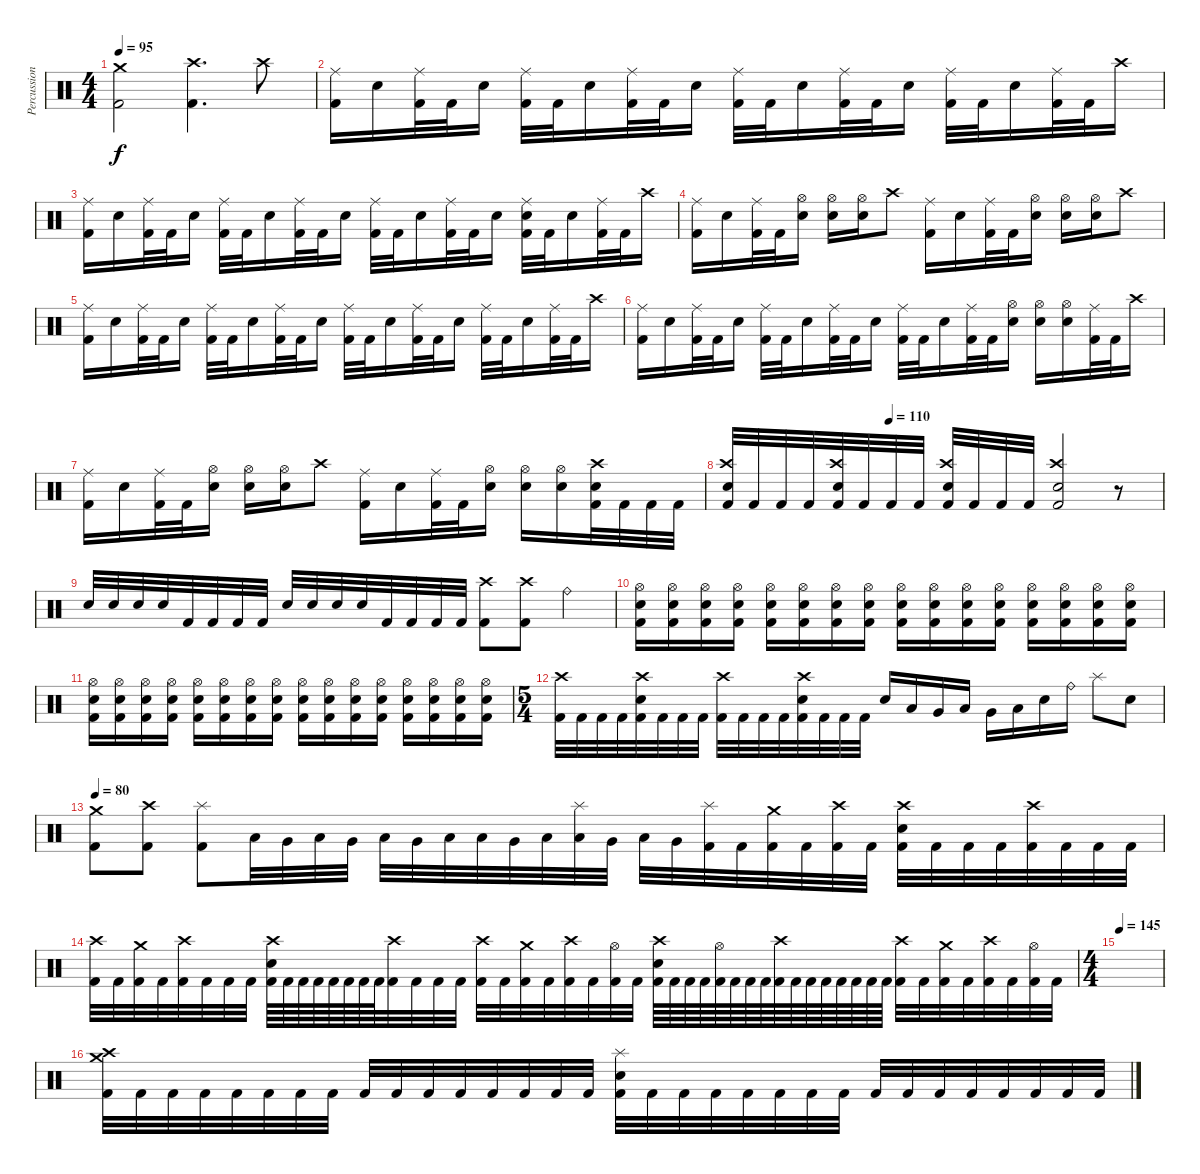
\track ("Percussion" "Percussion") {instrument percussion}
\staff {score}
\articulation defaults
\ts (4 4)
\tempo 95
\clef neutral
\ks c
("Crash medium (hit)" "Kick (hit) 2").2{dy f} ("Crash high (hit)" "Kick (hit) 2").4{d} "Crash high (hit)".8 |
("Ride (middle)" "Kick (hit) 2").16 "Electric Snare (hit)".16 ("Ride (middle)" "Kick (hit) 2").32 "Kick (hit) 2".32 "Electric Snare (hit)".16 ("Ride (middle)" "Kick (hit) 2").32 "Kick (hit) 2".32 "Electric Snare (hit)".16 ("Ride (middle)" "Kick (hit) 2").32 "Kick (hit) 2".32 "Electric Snare (hit)".16 ("Ride (middle)" "Kick (hit) 2").32 "Kick (hit) 2".32 "Electric Snare (hit)".16 ("Ride (middle)" "Kick (hit) 2").32 "Kick (hit) 2".32 "Electric Snare (hit)".16 ("Ride (middle)" "Kick (hit) 2").32 "Kick (hit) 2".32 "Electric Snare (hit)".16 ("Ride (middle)" "Kick (hit) 2").32 "Kick (hit) 2".32 "Crash high (hit)".16 |
("Ride (middle)" "Kick (hit) 2").16 "Electric Snare (hit)".16 ("Ride (middle)" "Kick (hit) 2").32 "Kick (hit) 2".32 "Electric Snare (hit)".16 ("Ride (middle)" "Kick (hit) 2").32 "Kick (hit) 2".32 "Electric Snare (hit)".16 ("Ride (middle)" "Kick (hit) 2").32 "Kick (hit) 2".32 "Electric Snare (hit)".16 ("Ride (middle)" "Kick (hit) 2").32 "Kick (hit) 2".32 "Electric Snare (hit)".16 ("Ride (middle)" "Kick (hit) 2").32 "Kick (hit) 2".32 "Electric Snare (hit)".16 ("Ride (middle)" "Electric Snare (hit)" "Kick (hit) 2").32 "Kick (hit) 2".32 "Electric Snare (hit)".16 ("Ride (middle)" "Kick (hit) 2").32 "Kick (hit) 2".32 "Crash high (hit)".16 |
("Ride (middle)" "Kick (hit) 2").16 "Electric Snare (hit)".16 ("Ride (middle)" "Kick (hit) 2").32 "Kick (hit) 2".32 ("Hi-Hat (open)" "Electric Snare (hit)").16 ("Hi-Hat (open)" "Electric Snare (hit)").16 ("Hi-Hat (open)" "Electric Snare (hit)").16 "Crash high (hit)".8 ("Ride (middle)" "Kick (hit) 2").16 "Electric Snare (hit)".16 ("Ride (middle)" "Kick (hit) 2").32 "Kick (hit) 2".32 ("Hi-Hat (open)" "Electric Snare (hit)").16 ("Hi-Hat (open)" "Electric Snare (hit)").16 ("Hi-Hat (open)" "Electric Snare (hit)").16 "Crash high (hit)".8 |
("Ride (middle)" "Kick (hit) 2").16 "Electric Snare (hit)".16 ("Ride (middle)" "Kick (hit) 2").32 "Kick (hit) 2".32 "Electric Snare (hit)".16 ("Ride (middle)" "Kick (hit) 2").32 "Kick (hit) 2".32 "Electric Snare (hit)".16 ("Ride (middle)" "Kick (hit) 2").32 "Kick (hit) 2".32 "Electric Snare (hit)".16 ("Ride (middle)" "Kick (hit) 2").32 "Kick (hit) 2".32 "Electric Snare (hit)".16 ("Ride (middle)" "Kick (hit) 2").32 "Kick (hit) 2".32 "Electric Snare (hit)".16 ("Ride (middle)" "Kick (hit) 2").32 "Kick (hit) 2".32 "Electric Snare (hit)".16 ("Ride (middle)" "Kick (hit) 2").32 "Kick (hit) 2".32 "Crash high (hit)".16 |
("Ride (middle)" "Kick (hit) 2").16 "Electric Snare (hit)".16 ("Ride (middle)" "Kick (hit) 2").32 "Kick (hit) 2".32 "Electric Snare (hit)".16 ("Ride (middle)" "Kick (hit) 2").32 "Kick (hit) 2".32 "Electric Snare (hit)".16 ("Ride (middle)" "Kick (hit) 2").32 "Kick (hit) 2".32 "Electric Snare (hit)".16 ("Ride (middle)" "Kick (hit) 2").32 "Kick (hit) 2".32 "Electric Snare (hit)".16 ("Ride (middle)" "Kick (hit) 2").32 "Kick (hit) 2".32 ("Hi-Hat (open)" "Electric Snare (hit)").16 ("Hi-Hat (open)" "Electric Snare (hit)").16 ("Hi-Hat (open)" "Electric Snare (hit)").16 ("Ride (middle)" "Kick (hit) 2").32 "Kick (hit) 2".32 "Crash high (hit)".16 |
("Ride (middle)" "Kick (hit) 2").16 "Electric Snare (hit)".16 ("Ride (middle)" "Kick (hit) 2").32 "Kick (hit) 2".32 ("Hi-Hat (open)" "Electric Snare (hit)").16 ("Hi-Hat (open)" "Electric Snare (hit)").16 ("Hi-Hat (open)" "Electric Snare (hit)").16 "Crash high (hit)".8 ("Ride (middle)" "Kick (hit) 2").16 "Electric Snare (hit)".16 ("Ride (middle)" "Kick (hit) 2").32 "Kick (hit) 2".32 ("Hi-Hat (open)" "Electric Snare (hit)").16 ("Hi-Hat (open)" "Electric Snare (hit)").16 ("Hi-Hat (open)" "Electric Snare (hit)").16 ("Crash high (hit)" "Electric Snare (hit)" "Kick (hit) 2").32 "Kick (hit) 2".32 "Kick (hit) 2".32 "Kick (hit) 2".32 |
\tempo (110 0.375)
("Crash high (hit)" "Electric Snare (hit)" "Kick (hit) 2").32 "Kick (hit) 2".32 "Kick (hit) 2".32 "Kick (hit) 2".32 ("Crash high (hit)" "Electric Snare (hit)" "Kick (hit) 2").32 "Kick (hit) 2".32 "Kick (hit) 2".32 "Kick (hit) 2".32 ("Crash high (hit)" "Electric Snare (hit)" "Kick (hit) 2").32 "Kick (hit) 2".32 "Kick (hit) 2".32 "Kick (hit) 2".32 ("Crash high (hit)" "Electric Snare (hit)" "Kick (hit) 2").2 r.8 |
"Electric Snare (hit)".32 "Electric Snare (hit)".32 "Electric Snare (hit)".32 "Electric Snare (hit)".32 "Kick (hit) 2".32 "Kick (hit) 2".32 "Kick (hit) 2".32 "Kick (hit) 2".32 "Electric Snare (hit)".32 "Electric Snare (hit)".32 "Electric Snare (hit)".32 "Electric Snare (hit)".32 "Kick (hit) 2".32 "Kick (hit) 2".32 "Kick (hit) 2".32 "Kick (hit) 2".32 ("Crash high (hit)" "Kick (hit) 2").8 ("Crash high (hit)" "Kick (hit) 2").8 "Ride (bell)".4 |
("Hi-Hat (open)" "Electric Snare (hit)" "Kick (hit) 2").16 ("Hi-Hat (open)" "Electric Snare (hit)" "Kick (hit) 2").16 ("Hi-Hat (open)" "Electric Snare (hit)" "Kick (hit) 2").16 ("Hi-Hat (open)" "Electric Snare (hit)" "Kick (hit) 2").16 ("Hi-Hat (open)" "Electric Snare (hit)" "Kick (hit) 2").16 ("Hi-Hat (open)" "Electric Snare (hit)" "Kick (hit) 2").16 ("Hi-Hat (open)" "Electric Snare (hit)" "Kick (hit) 2").16 ("Hi-Hat (open)" "Electric Snare (hit)" "Kick (hit) 2").16 ("Hi-Hat (open)" "Electric Snare (hit)" "Kick (hit) 2").16 ("Hi-Hat (open)" "Electric Snare (hit)" "Kick (hit) 2").16 ("Hi-Hat (open)" "Electric Snare (hit)" "Kick (hit) 2").16 ("Hi-Hat (open)" "Electric Snare (hit)" "Kick (hit) 2").16 ("Hi-Hat (open)" "Electric Snare (hit)" "Kick (hit) 2").16 ("Hi-Hat (open)" "Electric Snare (hit)" "Kick (hit) 2").16 ("Hi-Hat (open)" "Electric Snare (hit)" "Kick (hit) 2").16 ("Hi-Hat (open)" "Electric Snare (hit)" "Kick (hit) 2").16 |
("Hi-Hat (open)" "Electric Snare (hit)" "Kick (hit) 2").16 ("Hi-Hat (open)" "Electric Snare (hit)" "Kick (hit) 2").16 ("Hi-Hat (open)" "Electric Snare (hit)" "Kick (hit) 2").16 ("Hi-Hat (open)" "Electric Snare (hit)" "Kick (hit) 2").16 ("Hi-Hat (open)" "Electric Snare (hit)" "Kick (hit) 2").16 ("Hi-Hat (open)" "Electric Snare (hit)" "Kick (hit) 2").16 ("Hi-Hat (open)" "Electric Snare (hit)" "Kick (hit) 2").16 ("Hi-Hat (open)" "Electric Snare (hit)" "Kick (hit) 2").16 ("Hi-Hat (open)" "Electric Snare (hit)" "Kick (hit) 2").16 ("Hi-Hat (open)" "Electric Snare (hit)" "Kick (hit) 2").16 ("Hi-Hat (open)" "Electric Snare (hit)" "Kick (hit) 2").16 ("Hi-Hat (open)" "Electric Snare (hit)" "Kick (hit) 2").16 ("Hi-Hat (open)" "Electric Snare (hit)" "Kick (hit) 2").16 ("Hi-Hat (open)" "Electric Snare (hit)" "Kick (hit) 2").16 ("Hi-Hat (open)" "Electric Snare (hit)" "Kick (hit) 2").16 ("Hi-Hat (open)" "Electric Snare (hit)" "Kick (hit) 2").16 |
\ts (5 4)
("Crash high (hit)" "Kick (hit) 2").32 "Kick (hit) 2".32 "Kick (hit) 2".32 "Kick (hit) 2".32 ("Crash high (hit)" "Electric Snare (hit)" "Kick (hit) 2").32 "Kick (hit) 2".32 "Kick (hit) 2".32 "Kick (hit) 2".32 ("Crash high (hit)" "Kick (hit) 2").32 "Kick (hit) 2".32 "Kick (hit) 2".32 "Kick (hit) 2".32 ("Crash high (hit)" "Electric Snare (hit)" "Kick (hit) 2").32 "Kick (hit) 2".32 "Kick (hit) 2".32 "Kick (hit) 2".32 "Electric Snare (hit)".16 "Low Tom (hit)".16 "Very Low Tom (hit)".16 "Low Floor Tom (hit)".16 "Very Low Tom (hit)".16 "Low Floor Tom (hit)".16 "Electric Snare (hit)".16 "Ride (bell)".16 "Splash (hit)".8 "Electric Snare (hit)".8 |
\tempo 80
("Crash medium (hit)" "Kick (hit) 2").8 ("Crash high (hit)" "Kick (hit) 2").8 ("Splash (hit)" "Kick (hit) 2").8 "Low Tom (hit)".32 "Very Low Tom (hit)".32 "Low Floor Tom (hit)".32 "Very Low Tom (hit)".32 "Low Floor Tom (hit)".32 "Very Low Tom (hit)".32 "Low Floor Tom (hit)".32 "Low Tom (hit)".32 "Very Low Tom (hit)".32 "Low Tom (hit)".32 ("Splash (hit)" "Low Tom (hit)").32 "Very Low Tom (hit)".32 "Low Floor Tom (hit)".32 "Very Low Tom (hit)".32 ("Splash (hit)" "Kick (hit) 2").32 "Kick (hit) 2".32 ("Crash medium (hit)" "Kick (hit) 2").32 "Kick (hit) 2".32 ("Crash high (hit)" "Kick (hit) 2").32 "Kick (hit) 2".32 ("Crash high (hit)" "Electric Snare (hit)" "Kick (hit) 2").32 "Kick (hit) 2".32 "Kick (hit) 2".32 "Kick (hit) 2".32 ("Crash high (hit)" "Kick (hit) 2").32 "Kick (hit) 2".32 "Kick (hit) 2".32 "Kick (hit) 2".32 |
("Crash high (hit)" "Kick (hit) 2").32 "Kick (hit) 2".32 ("Crash medium (hit)" "Kick (hit) 2").32 "Kick (hit) 2".32 ("Crash high (hit)" "Kick (hit) 2").32 "Kick (hit) 2".32 "Kick (hit) 2".32 "Kick (hit) 2".32 ("Crash high (hit)" "Electric Snare (hit)" "Kick (hit) 2").64 "Kick (hit) 2".64 "Kick (hit) 2".64 "Kick (hit) 2".64 "Kick (hit) 2".64 "Kick (hit) 2".64 "Kick (hit) 2".64 "Kick (hit) 2".64 ("Crash high (hit)" "Kick (hit) 2").32 "Kick (hit) 2".32 "Kick (hit) 2".32 "Kick (hit) 2".32 ("Crash high (hit)" "Kick (hit) 2").32 "Kick (hit) 2".32 ("Crash medium (hit)" "Kick (hit) 2").32 "Kick (hit) 2".32 ("Crash high (hit)" "Kick (hit) 2").32 "Kick (hit) 2".32 ("Hi-Hat (open)" "Kick (hit) 2").32 "Kick (hit) 2".32 ("Crash high (hit)" "Electric Snare (hit)" "Kick (hit) 2").64 "Kick (hit) 2".64 "Kick (hit) 2".64 "Kick (hit) 2".64 ("Hi-Hat (open)" "Kick (hit) 2").64 "Kick (hit) 2".64 "Kick (hit) 2".64 "Kick (hit) 2".64 ("Crash high (hit)" "Kick (hit) 2").64 "Kick (hit) 2".64 "Kick (hit) 2".64 "Kick (hit) 2".64 "Kick (hit) 2".64 "Kick (hit) 2".64 "Kick (hit) 2".64 "Kick (hit) 2".64 ("Crash high (hit)" "Kick (hit) 2").32 "Kick (hit) 2".32 ("Crash medium (hit)" "Kick (hit) 2").32 "Kick (hit) 2".32 ("Crash high (hit)" "Kick (hit) 2").32 "Kick (hit) 2".32 ("Hi-Hat (open)" "Kick (hit) 2").32 "Kick (hit) 2".32 |
\ts (4 4)
\tempo 145
|
("Crash high (hit)" "Crash medium (hit)" "Kick (hit) 2").32 "Kick (hit) 2".32 "Kick (hit) 2".32 "Kick (hit) 2".32 "Kick (hit) 2".32 "Kick (hit) 2".32 "Kick (hit) 2".32 "Kick (hit) 2".32 "Kick (hit) 2".32 "Kick (hit) 2".32 "Kick (hit) 2".32 "Kick (hit) 2".32 "Kick (hit) 2".32 "Kick (hit) 2".32 "Kick (hit) 2".32 "Kick (hit) 2".32 ("Splash (hit)" "Electric Snare (hit)" "Kick (hit) 2").32 "Kick (hit) 2".32 "Kick (hit) 2".32 "Kick (hit) 2".32 "Kick (hit) 2".32 "Kick (hit) 2".32 "Kick (hit) 2".32 "Kick (hit) 2".32 "Kick (hit) 2".32 "Kick (hit) 2".32 "Kick (hit) 2".32 "Kick (hit) 2".32 "Kick (hit) 2".32 "Kick (hit) 2".32 "Kick (hit) 2".32 "Kick (hit) 2".32
